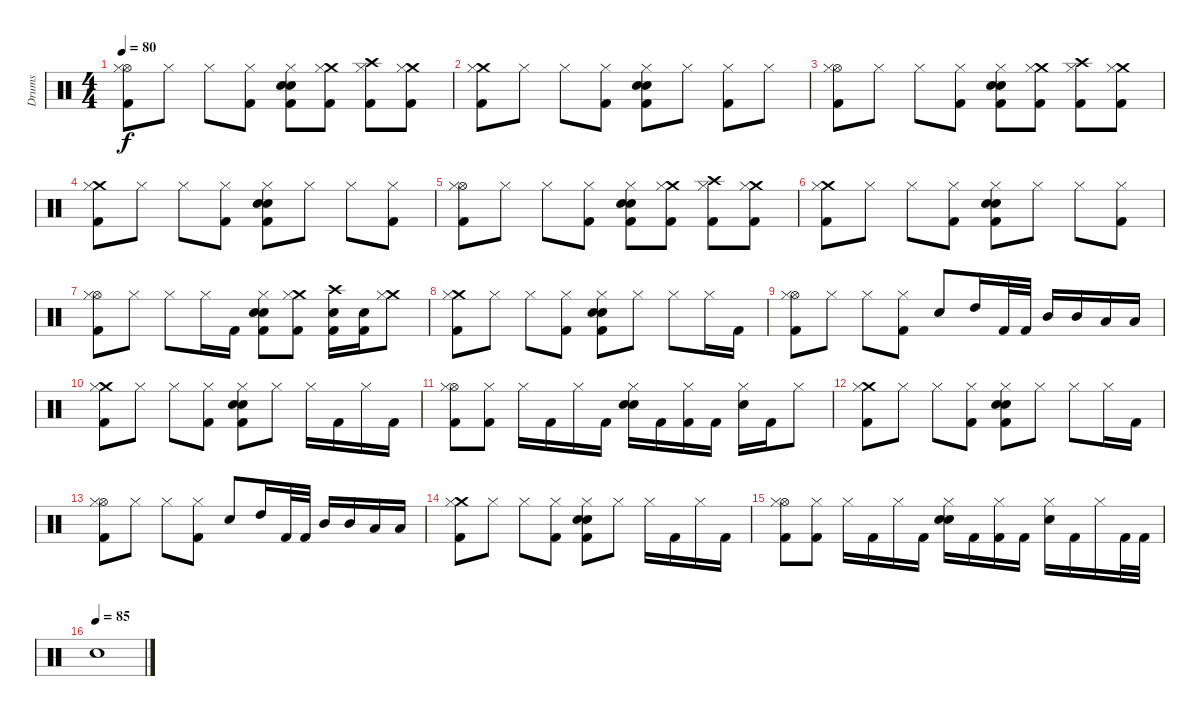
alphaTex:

\track ("Drums" "Drums") {instrument percussion}
\staff {score}
\articulation defaults
\ts (4 4)
\tempo 80
\clef neutral
\ks c
("Hi-Hat (open)" "Hi-Hat (closed)" "Kick (hit) 2").8{dy f} "Hi-Hat (closed)".8 "Hi-Hat (closed)".8 ("Hi-Hat (closed)" "Kick (hit) 2").8 ("Electric Snare (hit)" "Hi-Hat (closed)" "Snare (hit) 2" "Kick (hit) 2").8 ("Crash medium (hit)" "Hi-Hat (closed)" "Kick (hit) 2").8 ("Crash high (hit)" "Hi-Hat (closed)" "Kick (hit) 2").8 ("Crash medium (hit)" "Hi-Hat (closed)" "Kick (hit) 2").8 |
("Crash medium (hit)" "Hi-Hat (closed)" "Kick (hit) 2").8 "Hi-Hat (closed)".8 "Hi-Hat (closed)".8 ("Hi-Hat (closed)" "Kick (hit) 2").8 ("Electric Snare (hit)" "Hi-Hat (closed)" "Snare (hit) 2" "Kick (hit) 2").8 "Hi-Hat (closed)".8 ("Hi-Hat (closed)" "Kick (hit) 2").8 "Hi-Hat (closed)".8 |
("Hi-Hat (open)" "Hi-Hat (closed)" "Kick (hit) 2").8 "Hi-Hat (closed)".8 "Hi-Hat (closed)".8 ("Hi-Hat (closed)" "Kick (hit) 2").8 ("Electric Snare (hit)" "Hi-Hat (closed)" "Snare (hit) 2" "Kick (hit) 2").8 ("Crash medium (hit)" "Hi-Hat (closed)" "Kick (hit) 2").8 ("Crash high (hit)" "Hi-Hat (closed)" "Kick (hit) 2").8 ("Crash medium (hit)" "Hi-Hat (closed)" "Kick (hit) 2").8 |
("Crash medium (hit)" "Hi-Hat (closed)" "Kick (hit) 2").8 "Hi-Hat (closed)".8 "Hi-Hat (closed)".8 ("Hi-Hat (closed)" "Kick (hit) 2").8 ("Electric Snare (hit)" "Hi-Hat (closed)" "Snare (hit) 2" "Kick (hit) 2").8 "Hi-Hat (closed)".8 "Hi-Hat (closed)".8 ("Hi-Hat (closed)" "Kick (hit) 2").8 |
("Hi-Hat (open)" "Hi-Hat (closed)" "Kick (hit) 2").8 "Hi-Hat (closed)".8 "Hi-Hat (closed)".8 ("Hi-Hat (closed)" "Kick (hit) 2").8 ("Electric Snare (hit)" "Hi-Hat (closed)" "Snare (hit) 2" "Kick (hit) 2").8 ("Crash medium (hit)" "Hi-Hat (closed)" "Kick (hit) 2").8 ("Crash high (hit)" "Hi-Hat (closed)" "Kick (hit) 2").8 ("Crash medium (hit)" "Hi-Hat (closed)" "Kick (hit) 2").8 |
("Crash medium (hit)" "Hi-Hat (closed)" "Kick (hit) 2").8 "Hi-Hat (closed)".8 "Hi-Hat (closed)".8 ("Hi-Hat (closed)" "Kick (hit) 2").8 ("Electric Snare (hit)" "Hi-Hat (closed)" "Snare (hit) 2" "Kick (hit) 2").8 "Hi-Hat (closed)".8 "Hi-Hat (closed)".8 ("Hi-Hat (closed)" "Kick (hit) 2").8 |
("Hi-Hat (open)" "Hi-Hat (closed)" "Kick (hit) 2").8 "Hi-Hat (closed)".8 "Hi-Hat (closed)".8 "Hi-Hat (closed)".16 "Kick (hit) 2".16 ("Electric Snare (hit)" "Hi-Hat (closed)" "Snare (hit) 2" "Kick (hit) 2").8 ("Crash medium (hit)" "Hi-Hat (closed)" "Kick (hit) 2").8 ("Crash high (hit)" "Electric Snare (hit)" "Kick (hit) 2").16 ("Electric Snare (hit)" "Kick (hit) 2").16 ("Crash medium (hit)" "Hi-Hat (closed)").8 |
("Crash medium (hit)" "Hi-Hat (closed)" "Kick (hit) 2").8 "Hi-Hat (closed)".8 "Hi-Hat (closed)".8 ("Hi-Hat (closed)" "Kick (hit) 2").8 ("Electric Snare (hit)" "Hi-Hat (closed)" "Snare (hit) 2" "Kick (hit) 2").8 "Hi-Hat (closed)".8 "Hi-Hat (closed)".8 "Hi-Hat (closed)".16 "Kick (hit) 2".16 |
("Hi-Hat (open)" "Hi-Hat (closed)" "Kick (hit) 2").8 "Hi-Hat (closed)".8 "Hi-Hat (closed)".8 ("Hi-Hat (closed)" "Kick (hit) 2").8 "Electric Snare (hit)".8 "High Tom (hit)".16 "Kick (hit) 2".32 "Kick (hit) 2".32 "Mid Tom (hit)".16 "Mid Tom (hit)".16 "Low Tom (hit)".16 "Low Tom (hit)".16 |
("Crash medium (hit)" "Hi-Hat (closed)" "Kick (hit) 2").8 "Hi-Hat (closed)".8 "Hi-Hat (closed)".8 ("Hi-Hat (closed)" "Kick (hit) 2").8 ("Electric Snare (hit)" "Hi-Hat (closed)" "Snare (hit) 2" "Kick (hit) 2").8 "Hi-Hat (closed)".8 "Hi-Hat (closed)".16 "Kick (hit) 2".16 "Hi-Hat (closed)".16 "Kick (hit) 2".16 |
("Hi-Hat (open)" "Hi-Hat (closed)" "Kick (hit) 2").8 ("Hi-Hat (closed)" "Kick (hit) 2").8 "Hi-Hat (closed)".16 "Kick (hit) 2".16 "Hi-Hat (closed)".16 "Kick (hit) 2".16 ("Electric Snare (hit)" "Hi-Hat (closed)" "Snare (hit) 2").16 "Kick (hit) 2".16 ("Hi-Hat (closed)" "Kick (hit) 2").16 "Kick (hit) 2".16 ("Hi-Hat (closed)" "Electric Snare (hit)").16 "Kick (hit) 2".16 "Hi-Hat (closed)".8 |
("Crash medium (hit)" "Hi-Hat (closed)" "Kick (hit) 2").8 "Hi-Hat (closed)".8 "Hi-Hat (closed)".8 ("Hi-Hat (closed)" "Kick (hit) 2").8 ("Electric Snare (hit)" "Hi-Hat (closed)" "Snare (hit) 2" "Kick (hit) 2").8 "Hi-Hat (closed)".8 "Hi-Hat (closed)".8 "Hi-Hat (closed)".16 "Kick (hit) 2".16 |
("Hi-Hat (open)" "Hi-Hat (closed)" "Kick (hit) 2").8 "Hi-Hat (closed)".8 "Hi-Hat (closed)".8 ("Hi-Hat (closed)" "Kick (hit) 2").8 "Electric Snare (hit)".8 "High Tom (hit)".16 "Kick (hit) 2".32 "Kick (hit) 2".32 "Mid Tom (hit)".16 "Mid Tom (hit)".16 "Low Tom (hit)".16 "Low Tom (hit)".16 |
("Crash medium (hit)" "Hi-Hat (closed)" "Kick (hit) 2").8 "Hi-Hat (closed)".8 "Hi-Hat (closed)".8 ("Hi-Hat (closed)" "Kick (hit) 2").8 ("Electric Snare (hit)" "Hi-Hat (closed)" "Snare (hit) 2" "Kick (hit) 2").8 "Hi-Hat (closed)".8 "Hi-Hat (closed)".16 "Kick (hit) 2".16 "Hi-Hat (closed)".16 "Kick (hit) 2".16 |
("Hi-Hat (open)" "Hi-Hat (closed)" "Kick (hit) 2").8 ("Hi-Hat (closed)" "Kick (hit) 2").8 "Hi-Hat (closed)".16 "Kick (hit) 2".16 "Hi-Hat (closed)".16 "Kick (hit) 2".16 ("Electric Snare (hit)" "Hi-Hat (closed)" "Snare (hit) 2").16 "Kick (hit) 2".16 ("Hi-Hat (closed)" "Kick (hit) 2").16 "Kick (hit) 2".16 ("Hi-Hat (closed)" "Electric Snare (hit)").16 "Kick (hit) 2".16 "Hi-Hat (closed)".16 "Kick (hit) 2".32 "Kick (hit) 2".32 |
\tempo (85)
"Electric Snare (hit)".1
